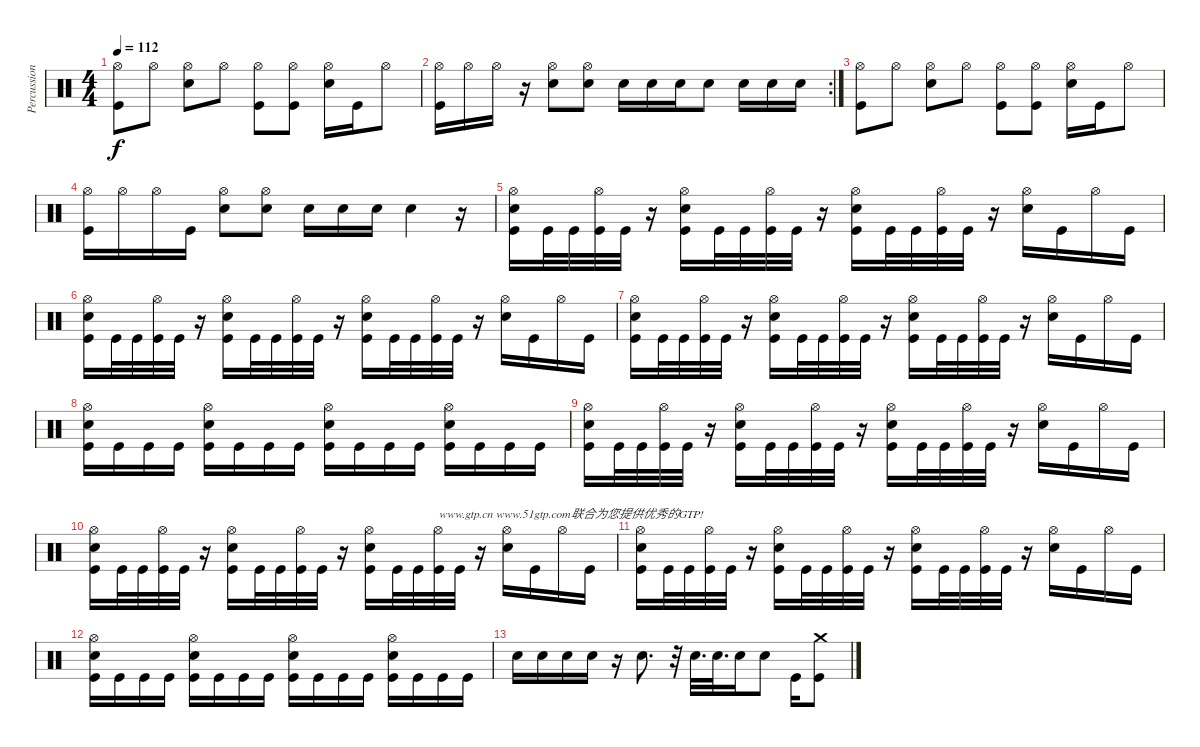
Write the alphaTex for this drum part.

\track ("Percussion" "Percussion") {instrument percussion}
\staff {score}
\articulation defaults
\ts (4 4)
\tempo 112
\clef neutral
\ks c
("Hi-Hat (open)" "Kick (hit)").8{dy f} "Hi-Hat (open)".8 ("Hi-Hat (open)" "Electric Snare (hit)").8 "Hi-Hat (open)".8 ("Hi-Hat (open)" "Kick (hit)").8 ("Hi-Hat (open)" "Kick (hit)").8 ("Hi-Hat (open)" "Electric Snare (hit)").16 "Kick (hit)".16 "Hi-Hat (open)".8 |
\rc 2
("Hi-Hat (open)" "Kick (hit)").16 "Hi-Hat (open)".16 "Hi-Hat (open)".16 r.16 ("Hi-Hat (open)" "Electric Snare (hit)").8 ("Hi-Hat (open)" "Electric Snare (hit)").8 "Electric Snare (hit)".16 "Electric Snare (hit)".16 "Electric Snare (hit)".16 "Electric Snare (hit)".8 "Electric Snare (hit)".16 "Electric Snare (hit)".16 "Electric Snare (hit)".16 |
("Hi-Hat (open)" "Kick (hit)").8 "Hi-Hat (open)".8 ("Hi-Hat (open)" "Electric Snare (hit)").8 "Hi-Hat (open)".8 ("Hi-Hat (open)" "Kick (hit)").8 ("Hi-Hat (open)" "Kick (hit)").8 ("Hi-Hat (open)" "Electric Snare (hit)").16 "Kick (hit)".16 "Hi-Hat (open)".8 |
("Hi-Hat (open)" "Kick (hit)").16 "Hi-Hat (open)".16 "Hi-Hat (open)".16 "Kick (hit)".16 ("Hi-Hat (open)" "Electric Snare (hit)").8 ("Hi-Hat (open)" "Electric Snare (hit)").8 "Electric Snare (hit)".16 "Electric Snare (hit)".16 "Electric Snare (hit)".16 "Electric Snare (hit)".4 r.16 |
("Hi-Hat (open)" "Electric Snare (hit)" "Kick (hit)").16 "Kick (hit)".32 "Kick (hit)".32 ("Hi-Hat (open)" "Kick (hit)").32 "Kick (hit)".32 r.16 ("Hi-Hat (open)" "Electric Snare (hit)" "Kick (hit)").16 "Kick (hit)".32 "Kick (hit)".32 ("Hi-Hat (open)" "Kick (hit)").32 "Kick (hit)".32 r.16 ("Hi-Hat (open)" "Electric Snare (hit)" "Kick (hit)").16 "Kick (hit)".32 "Kick (hit)".32 ("Hi-Hat (open)" "Kick (hit)").32 "Kick (hit)".32 r.16 ("Hi-Hat (open)" "Electric Snare (hit)").16 "Kick (hit)".16 "Hi-Hat (open)".16 "Kick (hit)".16 |
("Hi-Hat (open)" "Electric Snare (hit)" "Kick (hit)").16 "Kick (hit)".32 "Kick (hit)".32 ("Hi-Hat (open)" "Kick (hit)").32 "Kick (hit)".32 r.16 ("Hi-Hat (open)" "Electric Snare (hit)" "Kick (hit)").16 "Kick (hit)".32 "Kick (hit)".32 ("Hi-Hat (open)" "Kick (hit)").32 "Kick (hit)".32 r.16 ("Hi-Hat (open)" "Electric Snare (hit)" "Kick (hit)").16 "Kick (hit)".32 "Kick (hit)".32 ("Hi-Hat (open)" "Kick (hit)").32 "Kick (hit)".32 r.16 ("Hi-Hat (open)" "Electric Snare (hit)").16 "Kick (hit)".16 "Hi-Hat (open)".16 "Kick (hit)".16 |
("Hi-Hat (open)" "Electric Snare (hit)" "Kick (hit)").16 "Kick (hit)".32 "Kick (hit)".32 ("Hi-Hat (open)" "Kick (hit)").32 "Kick (hit)".32 r.16 ("Hi-Hat (open)" "Electric Snare (hit)" "Kick (hit)").16 "Kick (hit)".32 "Kick (hit)".32 ("Hi-Hat (open)" "Kick (hit)").32 "Kick (hit)".32 r.16 ("Hi-Hat (open)" "Electric Snare (hit)" "Kick (hit)").16 "Kick (hit)".32 "Kick (hit)".32 ("Hi-Hat (open)" "Kick (hit)").32 "Kick (hit)".32 r.16 ("Hi-Hat (open)" "Electric Snare (hit)").16 "Kick (hit)".16 "Hi-Hat (open)".16 "Kick (hit)".16 |
("Hi-Hat (open)" "Electric Snare (hit)" "Kick (hit)").16 "Kick (hit)".16 "Kick (hit)".16 "Kick (hit)".16 ("Hi-Hat (open)" "Electric Snare (hit)" "Kick (hit)").16 "Kick (hit)".16 "Kick (hit)".16 "Kick (hit)".16 ("Hi-Hat (open)" "Electric Snare (hit)" "Kick (hit)").16 "Kick (hit)".16 "Kick (hit)".16 "Kick (hit)".16 ("Hi-Hat (open)" "Electric Snare (hit)" "Kick (hit)").16 "Kick (hit)".16 "Kick (hit)".16 "Kick (hit)".16 |
("Hi-Hat (open)" "Electric Snare (hit)" "Kick (hit)").16 "Kick (hit)".32 "Kick (hit)".32 ("Hi-Hat (open)" "Kick (hit)").32 "Kick (hit)".32 r.16 ("Hi-Hat (open)" "Electric Snare (hit)" "Kick (hit)").16 "Kick (hit)".32 "Kick (hit)".32 ("Hi-Hat (open)" "Kick (hit)").32 "Kick (hit)".32 r.16 ("Hi-Hat (open)" "Electric Snare (hit)" "Kick (hit)").16 "Kick (hit)".32 "Kick (hit)".32 ("Hi-Hat (open)" "Kick (hit)").32 "Kick (hit)".32 r.16 ("Hi-Hat (open)" "Electric Snare (hit)").16 "Kick (hit)".16 "Hi-Hat (open)".16 "Kick (hit)".16 |
("Hi-Hat (open)" "Electric Snare (hit)" "Kick (hit)").16 "Kick (hit)".32 "Kick (hit)".32 ("Hi-Hat (open)" "Kick (hit)").32 "Kick (hit)".32 r.16 ("Hi-Hat (open)" "Electric Snare (hit)" "Kick (hit)").16 "Kick (hit)".32 "Kick (hit)".32 ("Hi-Hat (open)" "Kick (hit)").32 "Kick (hit)".32 r.16 ("Hi-Hat (open)" "Electric Snare (hit)" "Kick (hit)").16 "Kick (hit)".32 "Kick (hit)".32 ("Hi-Hat (open)" "Kick (hit)").32{txt "www.gtp.cn www.51gtp.com联合为您提供优秀的GTP!"} "Kick (hit)".32 r.16 ("Hi-Hat (open)" "Electric Snare (hit)").16 "Kick (hit)".16 "Hi-Hat (open)".16 "Kick (hit)".16 |
("Hi-Hat (open)" "Electric Snare (hit)" "Kick (hit)").16 "Kick (hit)".32 "Kick (hit)".32 ("Hi-Hat (open)" "Kick (hit)").32 "Kick (hit)".32 r.16 ("Hi-Hat (open)" "Electric Snare (hit)" "Kick (hit)").16 "Kick (hit)".32 "Kick (hit)".32 ("Hi-Hat (open)" "Kick (hit)").32 "Kick (hit)".32 r.16 ("Hi-Hat (open)" "Electric Snare (hit)" "Kick (hit)").16 "Kick (hit)".32 "Kick (hit)".32 ("Hi-Hat (open)" "Kick (hit)").32 "Kick (hit)".32 r.16 ("Hi-Hat (open)" "Electric Snare (hit)").16 "Kick (hit)".16 "Hi-Hat (open)".16 "Kick (hit)".16 |
("Hi-Hat (open)" "Electric Snare (hit)" "Kick (hit)").16 "Kick (hit)".16 "Kick (hit)".16 "Kick (hit)".16 ("Hi-Hat (open)" "Electric Snare (hit)" "Kick (hit)").16 "Kick (hit)".16 "Kick (hit)".16 "Kick (hit)".16 ("Hi-Hat (open)" "Electric Snare (hit)" "Kick (hit)").16 "Kick (hit)".16 "Kick (hit)".16 "Kick (hit)".16 ("Hi-Hat (open)" "Electric Snare (hit)" "Kick (hit)").16 "Kick (hit)".16 "Kick (hit)".16 "Kick (hit)".16 |
"Electric Snare (hit)".16 "Electric Snare (hit)".16 "Electric Snare (hit)".16 "Electric Snare (hit)".16 r.16 "Electric Snare (hit)".8{d} r.32 "Electric Snare (hit)".32{d} "Electric Snare (hit)".32{d} "Electric Snare (hit)".16 "Electric Snare (hit)".8 "Kick (hit)".16 ("Kick (hit)" "Crash medium (hit)").8
